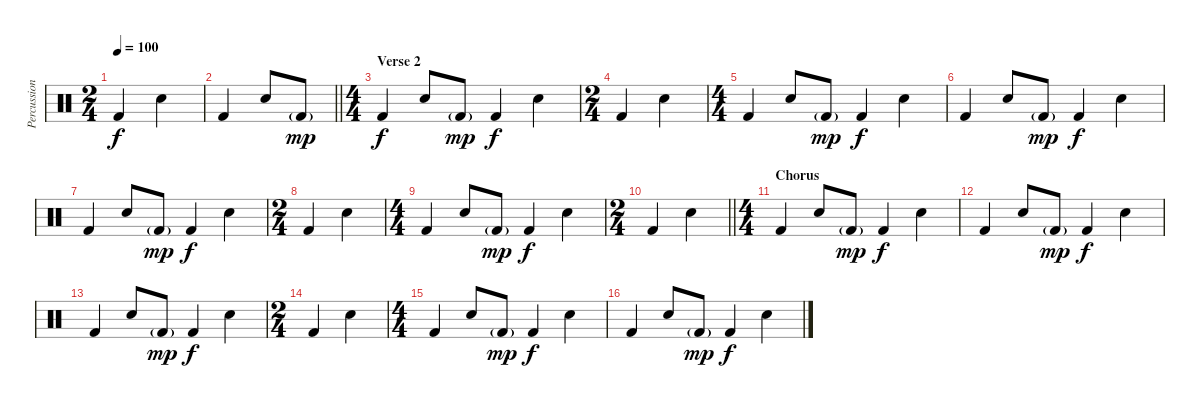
\track ("Percussion" "Percussion") {instrument percussion}
\staff {score}
\articulation defaults
\ts (2 4)
\tempo 100
\clef neutral
\ks c "Kick (hit) 2".4{dy f} "Snare (hit) 2".4
|
\barLineRight lightlight "Kick (hit) 2".4 "Snare (hit) 2".8 "Kick (hit) 2"{g}.8{dy mp}
|
\ts (4 4)
\section ("" "Verse 2")
"Kick (hit) 2".4{dy f} "Snare (hit) 2".8 "Kick (hit) 2"{g}.8{dy mp} "Kick (hit) 2".4{dy f} "Snare (hit) 2".4 |
\ts (2 4)
"Kick (hit) 2".4 "Snare (hit) 2".4 |
\ts (4 4)
"Kick (hit) 2".4 "Snare (hit) 2".8 "Kick (hit) 2"{g}.8{dy mp} "Kick (hit) 2".4{dy f} "Snare (hit) 2".4 |
"Kick (hit) 2".4 "Snare (hit) 2".8 "Kick (hit) 2"{g}.8{dy mp} "Kick (hit) 2".4{dy f} "Snare (hit) 2".4 |
"Kick (hit) 2".4 "Snare (hit) 2".8 "Kick (hit) 2"{g}.8{dy mp} "Kick (hit) 2".4{dy f} "Snare (hit) 2".4 |
\ts (2 4)
"Kick (hit) 2".4 "Snare (hit) 2".4 |
\ts (4 4)
"Kick (hit) 2".4 "Snare (hit) 2".8 "Kick (hit) 2"{g}.8{dy mp} "Kick (hit) 2".4{dy f} "Snare (hit) 2".4 |
\ts (2 4)
\barLineRight lightlight "Kick (hit) 2".4 "Snare (hit) 2".4
|
\ts (4 4)
\section ("" "Chorus")
"Kick (hit) 2".4 "Snare (hit) 2".8 "Kick (hit) 2"{g}.8{dy mp} "Kick (hit) 2".4{dy f} "Snare (hit) 2".4 |
"Kick (hit) 2".4 "Snare (hit) 2".8 "Kick (hit) 2"{g}.8{dy mp} "Kick (hit) 2".4{dy f} "Snare (hit) 2".4 |
"Kick (hit) 2".4 "Snare (hit) 2".8 "Kick (hit) 2"{g}.8{dy mp} "Kick (hit) 2".4{dy f} "Snare (hit) 2".4 |
\ts (2 4)
"Kick (hit) 2".4 "Snare (hit) 2".4 |
\ts (4 4)
"Kick (hit) 2".4 "Snare (hit) 2".8 "Kick (hit) 2"{g}.8{dy mp} "Kick (hit) 2".4{dy f} "Snare (hit) 2".4 |
"Kick (hit) 2".4 "Snare (hit) 2".8 "Kick (hit) 2"{g}.8{dy mp} "Kick (hit) 2".4{dy f} "Snare (hit) 2".4
